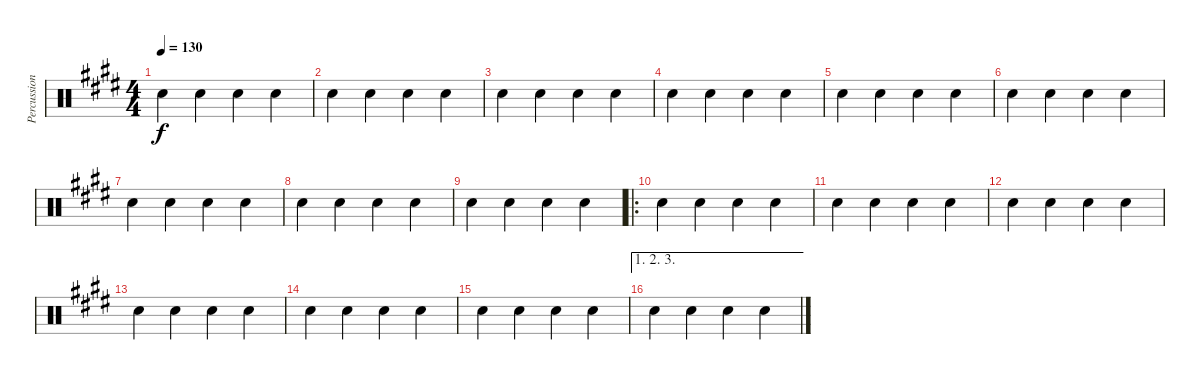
\track ("Percussion" "Percussion") {instrument percussion}
\staff {score}
\articulation defaults
\ts (4 4)
\tempo 130
\clef neutral
\ks e "Snare (hit) 2".4{dy f} "Snare (hit) 2".4 "Snare (hit) 2".4 "Snare (hit) 2".4
|
"Snare (hit) 2".4 "Snare (hit) 2".4 "Snare (hit) 2".4 "Snare (hit) 2".4 |
"Snare (hit) 2".4 "Snare (hit) 2".4 "Snare (hit) 2".4 "Snare (hit) 2".4 |
"Snare (hit) 2".4 "Snare (hit) 2".4 "Snare (hit) 2".4 "Snare (hit) 2".4 |
"Snare (hit) 2".4 "Snare (hit) 2".4 "Snare (hit) 2".4 "Snare (hit) 2".4 |
"Snare (hit) 2".4 "Snare (hit) 2".4 "Snare (hit) 2".4 "Snare (hit) 2".4 |
"Snare (hit) 2".4 "Snare (hit) 2".4 "Snare (hit) 2".4 "Snare (hit) 2".4 |
"Snare (hit) 2".4 "Snare (hit) 2".4 "Snare (hit) 2".4 "Snare (hit) 2".4 |
"Snare (hit) 2".4 "Snare (hit) 2".4 "Snare (hit) 2".4 "Snare (hit) 2".4 |
\ro "Snare (hit) 2".4 "Snare (hit) 2".4 "Snare (hit) 2".4 "Snare (hit) 2".4
|
"Snare (hit) 2".4 "Snare (hit) 2".4 "Snare (hit) 2".4 "Snare (hit) 2".4 |
"Snare (hit) 2".4 "Snare (hit) 2".4 "Snare (hit) 2".4 "Snare (hit) 2".4 |
"Snare (hit) 2".4 "Snare (hit) 2".4 "Snare (hit) 2".4 "Snare (hit) 2".4 |
"Snare (hit) 2".4 "Snare (hit) 2".4 "Snare (hit) 2".4 "Snare (hit) 2".4 |
"Snare (hit) 2".4 "Snare (hit) 2".4 "Snare (hit) 2".4 "Snare (hit) 2".4 |
\ae (1 2 3)
"Snare (hit) 2".4 "Snare (hit) 2".4 "Snare (hit) 2".4 "Snare (hit) 2".4
